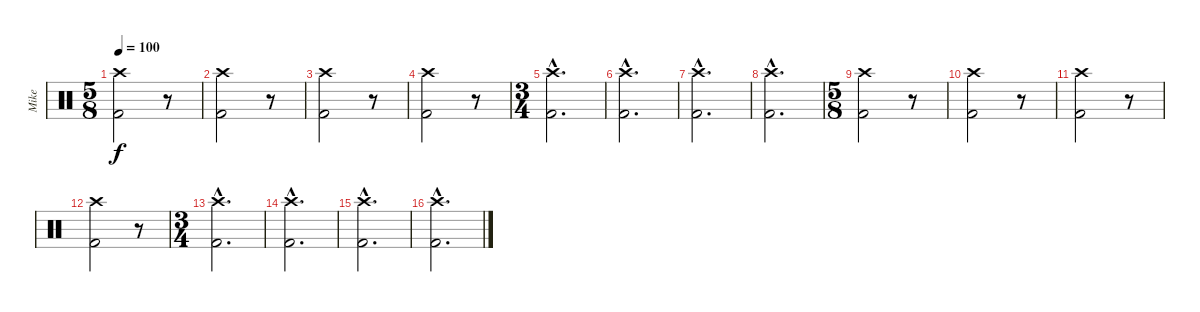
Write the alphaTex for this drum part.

\track ("Mike" "Mike") {instrument percussion}
\staff {score}
\articulation defaults
\ts (5 8)
\tempo 100
\tempo 80
\tempo 100
\clef neutral
\ks c
("Crash high (hit)" "Kick (hit) 2").2{dy f} r.8 |
("Crash high (hit)" "Kick (hit) 2").2 r.8 |
("Crash high (hit)" "Kick (hit) 2").2 r.8 |
("Crash high (hit)" "Kick (hit) 2").2 r.8 |
\ts (3 4)
("Crash high (hit)"{hac} "Kick (hit) 2"{hac}).2{d} |
("Crash high (hit)"{hac} "Kick (hit) 2"{hac}).2{d} |
("Crash high (hit)"{hac} "Kick (hit) 2"{hac}).2{d} |
("Crash high (hit)"{hac} "Kick (hit) 2"{hac}).2{d} |
\ts (5 8)
("Crash high (hit)" "Kick (hit) 2").2 r.8 |
("Crash high (hit)" "Kick (hit) 2").2 r.8 |
("Crash high (hit)" "Kick (hit) 2").2 r.8 |
("Crash high (hit)" "Kick (hit) 2").2 r.8 |
\ts (3 4)
("Crash high (hit)"{hac} "Kick (hit) 2"{hac}).2{d} |
("Crash high (hit)"{hac} "Kick (hit) 2"{hac}).2{d} |
("Crash high (hit)"{hac} "Kick (hit) 2"{hac}).2{d} |
("Crash high (hit)"{hac} "Kick (hit) 2"{hac}).2{d}
